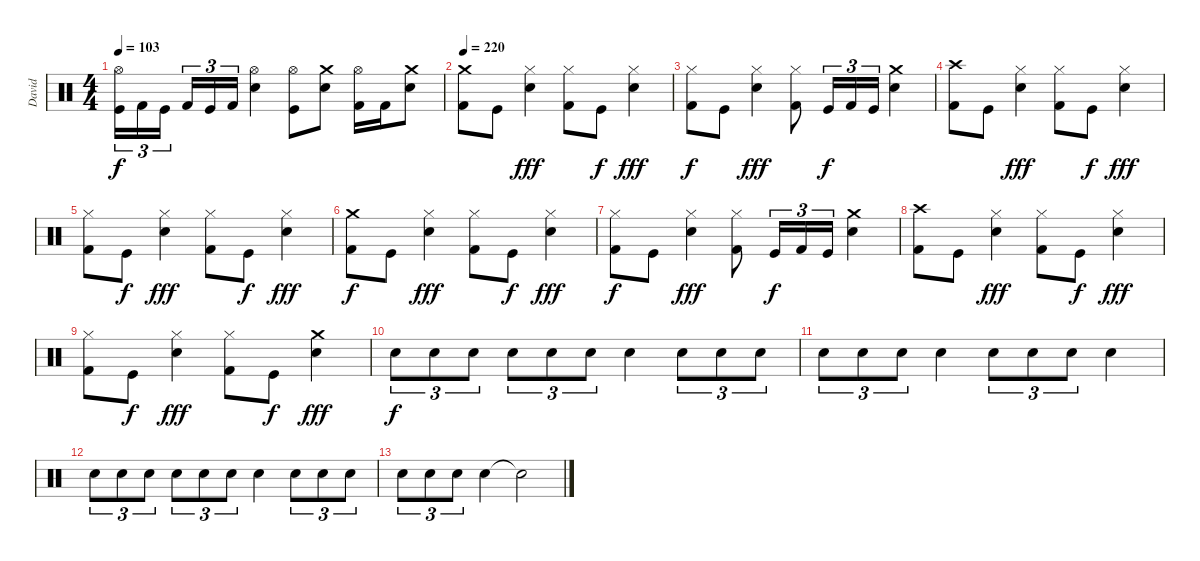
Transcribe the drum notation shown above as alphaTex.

\track ("David" "David") {instrument percussion}
\staff {score}
\articulation defaults
\ts (4 4)
\tempo 103
\clef neutral
\ks c
("Hi-Hat (open)" "Kick (hit)").16{tu (3 2) dy f} "Kick (hit) 2".16{tu (3 2)} "Kick (hit)".16{tu (3 2)} "Kick (hit) 2".16{tu (3 2)} "Kick (hit)".16{tu (3 2)} "Kick (hit) 2".16{tu (3 2)} ("Hi-Hat (open)" "Snare (hit) 2").4 ("Hi-Hat (open)" "Kick (hit)").8 ("Crash medium (hit)" "Snare (hit) 2").8 ("Hi-Hat (open)" "Kick (hit) 2").16 "Kick (hit) 2".16 ("Crash medium (hit)" "Snare (hit) 2").8 |
\tempo 220
("Crash medium (hit)" "Kick (hit) 2").8 "Kick (hit)".8 ("Hi-Hat (closed)" "Snare (hit) 2").4{dy fff} ("Hi-Hat (closed)" "Kick (hit) 2").8 "Kick (hit)".8{dy f} ("Hi-Hat (closed)" "Snare (hit) 2").4{dy fff} |
("Hi-Hat (closed)" "Kick (hit) 2").8{dy f} "Kick (hit)".8 ("Hi-Hat (closed)" "Snare (hit) 2").4{dy fff} ("Hi-Hat (closed)" "Kick (hit) 2").8 "Kick (hit)".16{tu (3 2) dy f} "Kick (hit) 2".16{tu (3 2)} "Kick (hit)".16{tu (3 2)} ("Crash medium (hit)" "Snare (hit) 2").4 |
("Crash high (hit)" "Kick (hit) 2").8 "Kick (hit)".8 ("Hi-Hat (closed)" "Snare (hit) 2").4{dy fff} ("Hi-Hat (closed)" "Kick (hit) 2").8 "Kick (hit)".8{dy f} ("Hi-Hat (closed)" "Snare (hit) 2").4{dy fff} |
("Hi-Hat (closed)" "Kick (hit) 2").8 "Kick (hit)".8{dy f} ("Hi-Hat (closed)" "Snare (hit) 2").4{dy fff} ("Hi-Hat (closed)" "Kick (hit) 2").8 "Kick (hit)".8{dy f} ("Hi-Hat (closed)" "Snare (hit) 2").4{dy fff} |
("Crash medium (hit)" "Kick (hit) 2").8{dy f} "Kick (hit)".8 ("Hi-Hat (closed)" "Snare (hit) 2").4{dy fff} ("Hi-Hat (closed)" "Kick (hit) 2").8 "Kick (hit)".8{dy f} ("Hi-Hat (closed)" "Snare (hit) 2").4{dy fff} |
("Hi-Hat (closed)" "Kick (hit) 2").8{dy f} "Kick (hit)".8 ("Hi-Hat (closed)" "Snare (hit) 2").4{dy fff} ("Hi-Hat (closed)" "Kick (hit) 2").8 "Kick (hit)".16{tu (3 2) dy f} "Kick (hit) 2".16{tu (3 2)} "Kick (hit)".16{tu (3 2)} ("Crash medium (hit)" "Snare (hit) 2").4 |
("Crash high (hit)" "Kick (hit) 2").8 "Kick (hit)".8 ("Hi-Hat (closed)" "Snare (hit) 2").4{dy fff} ("Hi-Hat (closed)" "Kick (hit) 2").8 "Kick (hit)".8{dy f} ("Hi-Hat (closed)" "Snare (hit) 2").4{dy fff} |
("Hi-Hat (closed)" "Kick (hit) 2").8 "Kick (hit)".8{dy f} ("Hi-Hat (closed)" "Snare (hit) 2").4{dy fff} ("Hi-Hat (closed)" "Kick (hit) 2").8 "Kick (hit)".8{dy f} ("Crash medium (hit)" "Snare (hit) 2").4{dy fff} |
"Snare (hit) 2".8{tu (3 2) dy f} "Snare (hit) 2".8{tu (3 2)} "Snare (hit) 2".8{tu (3 2)} "Snare (hit) 2".8{tu (3 2)} "Snare (hit) 2".8{tu (3 2)} "Snare (hit) 2".8{tu (3 2)} "Snare (hit) 2".4 "Snare (hit) 2".8{tu (3 2)} "Snare (hit) 2".8{tu (3 2)} "Snare (hit) 2".8{tu (3 2)} |
"Snare (hit) 2".8{tu (3 2)} "Snare (hit) 2".8{tu (3 2)} "Snare (hit) 2".8{tu (3 2)} "Snare (hit) 2".4 "Snare (hit) 2".8{tu (3 2)} "Snare (hit) 2".8{tu (3 2)} "Snare (hit) 2".8{tu (3 2)} "Snare (hit) 2".4 |
"Snare (hit) 2".8{tu (3 2)} "Snare (hit) 2".8{tu (3 2)} "Snare (hit) 2".8{tu (3 2)} "Snare (hit) 2".8{tu (3 2)} "Snare (hit) 2".8{tu (3 2)} "Snare (hit) 2".8{tu (3 2)} "Snare (hit) 2".4 "Snare (hit) 2".8{tu (3 2)} "Snare (hit) 2".8{tu (3 2)} "Snare (hit) 2".8{tu (3 2)} |
"Snare (hit) 2".8{tu (3 2)} "Snare (hit) 2".8{tu (3 2)} "Snare (hit) 2".8{tu (3 2)} "Snare (hit) 2".4 "Snare (hit)"{t}.2
